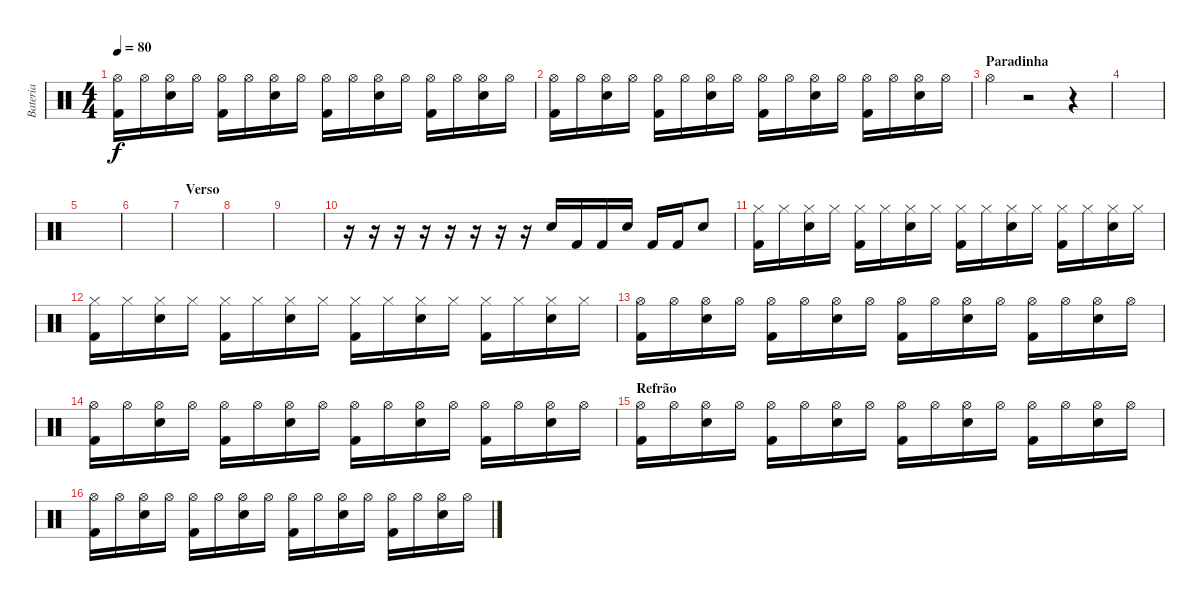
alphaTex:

\track ("Bateria" "Bateria") {instrument percussion}
\staff {score}
\articulation defaults
\ts (4 4)
\tempo 80
\clef neutral
\ks c
("Hi-Hat (open)" "Kick (hit) 2").16{dy f} "Hi-Hat (open)".16 ("Hi-Hat (open)" "Electric Snare (hit)").16 "Hi-Hat (open)".16 ("Hi-Hat (open)" "Kick (hit) 2").16 "Hi-Hat (open)".16 ("Hi-Hat (open)" "Electric Snare (hit)").16 "Hi-Hat (open)".16 ("Hi-Hat (open)" "Kick (hit) 2").16 "Hi-Hat (open)".16 ("Hi-Hat (open)" "Electric Snare (hit)").16 "Hi-Hat (open)".16 ("Hi-Hat (open)" "Kick (hit) 2").16 "Hi-Hat (open)".16 ("Hi-Hat (open)" "Electric Snare (hit)").16 "Hi-Hat (open)".16 |
("Hi-Hat (open)" "Kick (hit) 2").16 "Hi-Hat (open)".16 ("Hi-Hat (open)" "Electric Snare (hit)").16 "Hi-Hat (open)".16 ("Hi-Hat (open)" "Kick (hit) 2").16 "Hi-Hat (open)".16 ("Hi-Hat (open)" "Electric Snare (hit)").16 "Hi-Hat (open)".16 ("Hi-Hat (open)" "Kick (hit) 2").16 "Hi-Hat (open)".16 ("Hi-Hat (open)" "Electric Snare (hit)").16 "Hi-Hat (open)".16 ("Hi-Hat (open)" "Kick (hit) 2").16 "Hi-Hat (open)".16 ("Hi-Hat (open)" "Electric Snare (hit)").16 "Hi-Hat (open)".16 |
\section ("" "Paradinha")
"Hi-Hat (open)".4 r.2 r.4 |
|
|
|
\section ("" "Verso")
|
|
|
r.16 r.16 r.16 r.16 r.16 r.16 r.16 r.16 "Electric Snare (hit)".16 "Kick (hit) 2".16 "Kick (hit) 2".16 "Electric Snare (hit)".16 "Kick (hit) 2".16 "Kick (hit) 2".16 "Electric Snare (hit)".8 |
("Hi-Hat (closed)" "Kick (hit) 2").16 "Hi-Hat (closed)".16 ("Hi-Hat (closed)" "Electric Snare (hit)").16 "Hi-Hat (closed)".16 ("Hi-Hat (closed)" "Kick (hit) 2").16 "Hi-Hat (closed)".16 ("Hi-Hat (closed)" "Electric Snare (hit)").16 "Hi-Hat (closed)".16 ("Hi-Hat (closed)" "Kick (hit) 2").16 "Hi-Hat (closed)".16 ("Hi-Hat (closed)" "Electric Snare (hit)").16 "Hi-Hat (closed)".16 ("Hi-Hat (closed)" "Kick (hit) 2").16 "Hi-Hat (closed)".16 ("Hi-Hat (closed)" "Electric Snare (hit)").16 "Hi-Hat (closed)".16 |
("Hi-Hat (closed)" "Kick (hit) 2").16 "Hi-Hat (closed)".16 ("Hi-Hat (closed)" "Electric Snare (hit)").16 "Hi-Hat (closed)".16 ("Hi-Hat (closed)" "Kick (hit) 2").16 "Hi-Hat (closed)".16 ("Hi-Hat (closed)" "Electric Snare (hit)").16 "Hi-Hat (closed)".16 ("Hi-Hat (closed)" "Kick (hit) 2").16 "Hi-Hat (closed)".16 ("Hi-Hat (closed)" "Electric Snare (hit)").16 "Hi-Hat (closed)".16 ("Hi-Hat (closed)" "Kick (hit) 2").16 "Hi-Hat (closed)".16 ("Hi-Hat (closed)" "Electric Snare (hit)").16 "Hi-Hat (closed)".16 |
("Hi-Hat (open)" "Kick (hit) 2").16 "Hi-Hat (open)".16 ("Hi-Hat (open)" "Electric Snare (hit)").16 "Hi-Hat (open)".16 ("Hi-Hat (open)" "Kick (hit) 2").16 "Hi-Hat (open)".16 ("Hi-Hat (open)" "Electric Snare (hit)").16 "Hi-Hat (open)".16 ("Hi-Hat (open)" "Kick (hit) 2").16 "Hi-Hat (open)".16 ("Hi-Hat (open)" "Electric Snare (hit)").16 "Hi-Hat (open)".16 ("Hi-Hat (open)" "Kick (hit) 2").16 "Hi-Hat (open)".16 ("Hi-Hat (open)" "Electric Snare (hit)").16 "Hi-Hat (open)".16 |
("Hi-Hat (open)" "Kick (hit) 2").16 "Hi-Hat (open)".16 ("Hi-Hat (open)" "Electric Snare (hit)").16 "Hi-Hat (open)".16 ("Hi-Hat (open)" "Kick (hit) 2").16 "Hi-Hat (open)".16 ("Hi-Hat (open)" "Electric Snare (hit)").16 "Hi-Hat (open)".16 ("Hi-Hat (open)" "Kick (hit) 2").16 "Hi-Hat (open)".16 ("Hi-Hat (open)" "Electric Snare (hit)").16 "Hi-Hat (open)".16 ("Hi-Hat (open)" "Kick (hit) 2").16 "Hi-Hat (open)".16 ("Hi-Hat (open)" "Electric Snare (hit)").16 "Hi-Hat (open)".16 |
\section ("" "Refrão")
("Hi-Hat (open)" "Kick (hit) 2").16 "Hi-Hat (open)".16 ("Hi-Hat (open)" "Electric Snare (hit)").16 "Hi-Hat (open)".16 ("Hi-Hat (open)" "Kick (hit) 2").16 "Hi-Hat (open)".16 ("Hi-Hat (open)" "Electric Snare (hit)").16 "Hi-Hat (open)".16 ("Hi-Hat (open)" "Kick (hit) 2").16 "Hi-Hat (open)".16 ("Hi-Hat (open)" "Electric Snare (hit)").16 "Hi-Hat (open)".16 ("Hi-Hat (open)" "Kick (hit) 2").16 "Hi-Hat (open)".16 ("Hi-Hat (open)" "Electric Snare (hit)").16 "Hi-Hat (open)".16 |
("Hi-Hat (open)" "Kick (hit) 2").16 "Hi-Hat (open)".16 ("Hi-Hat (open)" "Electric Snare (hit)").16 "Hi-Hat (open)".16 ("Hi-Hat (open)" "Kick (hit) 2").16 "Hi-Hat (open)".16 ("Hi-Hat (open)" "Electric Snare (hit)").16 "Hi-Hat (open)".16 ("Hi-Hat (open)" "Kick (hit) 2").16 "Hi-Hat (open)".16 ("Hi-Hat (open)" "Electric Snare (hit)").16 "Hi-Hat (open)".16 ("Hi-Hat (open)" "Kick (hit) 2").16 "Hi-Hat (open)".16 ("Hi-Hat (open)" "Electric Snare (hit)").16 "Hi-Hat (open)".16
